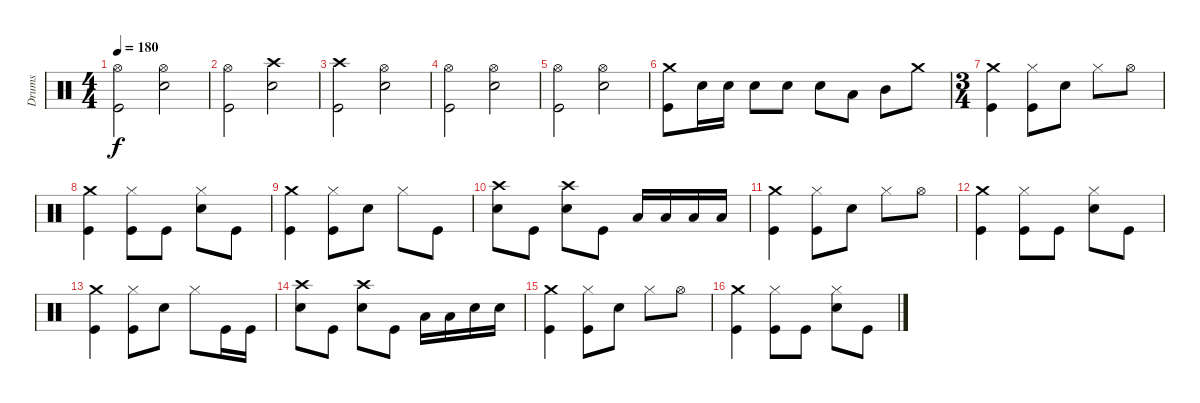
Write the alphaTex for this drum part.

\track ("Drums" "Drums") {instrument percussion}
\staff {score}
\articulation defaults
\ts (4 4)
\tempo 180
\clef neutral
\ks c
("Hi-Hat (open)" "Kick (hit)").2{dy f} ("Hi-Hat (open)" "Electric Snare (hit)").2 |
("Hi-Hat (open)" "Kick (hit)").2 ("Crash high (hit)" "Electric Snare (hit)").2 |
("Crash high (hit)" "Kick (hit)").2 ("Hi-Hat (open)" "Electric Snare (hit)").2 |
("Hi-Hat (open)" "Kick (hit)").2 ("Hi-Hat (open)" "Electric Snare (hit)").2 |
("Hi-Hat (open)" "Kick (hit)").2 ("Hi-Hat (open)" "Electric Snare (hit)").2 |
("Crash medium (hit)" "Kick (hit)").8 "Electric Snare (hit)".16 "Electric Snare (hit)".16 "Electric Snare (hit)".8 "Electric Snare (hit)".8 "Electric Snare (hit)".8 "Low Tom (hit)".8 "Mid Tom (hit)".8 "Crash medium (hit)".8 |
\ts (3 4)
("Crash medium (hit)" "Kick (hit)").4 ("Hi-Hat (closed)" "Kick (hit)").8 "Electric Snare (hit)".8 "Hi-Hat (closed)".8 "Hi-Hat (open)".8 |
("Crash medium (hit)" "Kick (hit)").4 ("Hi-Hat (closed)" "Kick (hit)").8 "Kick (hit)".8 ("Hi-Hat (closed)" "Electric Snare (hit)").8 "Kick (hit)".8 |
("Crash medium (hit)" "Kick (hit)").4 ("Hi-Hat (closed)" "Kick (hit)").8 "Electric Snare (hit)".8 "Hi-Hat (closed)".8 "Kick (hit)".8 |
("Crash high (hit)" "Electric Snare (hit)").8 "Kick (hit)".8 ("Crash high (hit)" "Electric Snare (hit)").8 "Kick (hit)".8 "Low Tom (hit)".16 "Low Tom (hit)".16 "Low Tom (hit)".16 "Low Tom (hit)".16 |
("Crash medium (hit)" "Kick (hit)").4 ("Hi-Hat (closed)" "Kick (hit)").8 "Electric Snare (hit)".8 "Hi-Hat (closed)".8 "Hi-Hat (open)".8 |
("Crash medium (hit)" "Kick (hit)").4 ("Hi-Hat (closed)" "Kick (hit)").8 "Kick (hit)".8 ("Hi-Hat (closed)" "Electric Snare (hit)").8 "Kick (hit)".8 |
("Crash medium (hit)" "Kick (hit)").4 ("Hi-Hat (closed)" "Kick (hit)").8 "Electric Snare (hit)".8 "Hi-Hat (closed)".8 "Kick (hit)".16 "Kick (hit)".16 |
("Crash high (hit)" "Electric Snare (hit)").8 "Kick (hit)".8 ("Crash high (hit)" "Electric Snare (hit)").8 "Kick (hit)".8 "Low Tom (hit)".16 "Low Tom (hit)".16 "Electric Snare (hit)".16 "Electric Snare (hit)".16 |
("Crash medium (hit)" "Kick (hit)").4 ("Hi-Hat (closed)" "Kick (hit)").8 "Electric Snare (hit)".8 "Hi-Hat (closed)".8 "Hi-Hat (open)".8 |
("Crash medium (hit)" "Kick (hit)").4 ("Hi-Hat (closed)" "Kick (hit)").8 "Kick (hit)".8 ("Hi-Hat (closed)" "Electric Snare (hit)").8 "Kick (hit)".8
